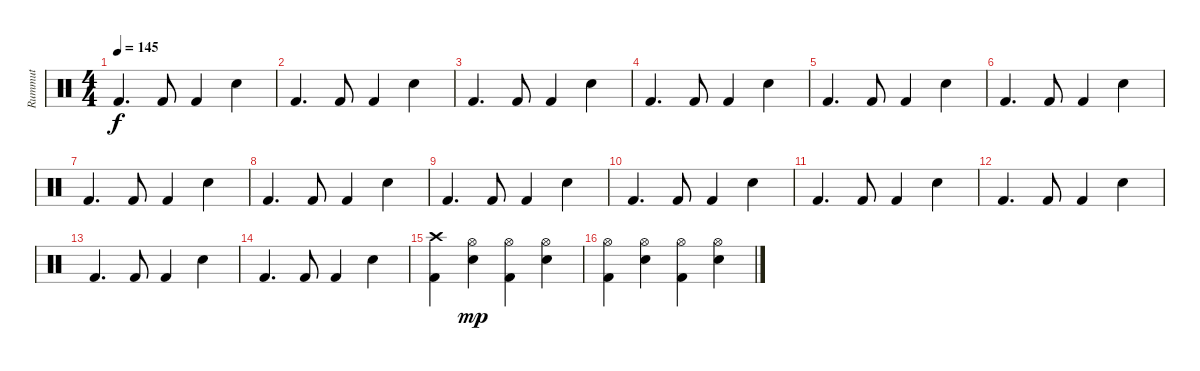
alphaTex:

\track ("Rummut" "Rummut") {instrument percussion}
\staff {score}
\articulation defaults
\ts (4 4)
\tempo 145
\clef neutral
\ks c "Kick (hit) 2".4{d dy f} "Kick (hit) 2".8 "Kick (hit) 2".4 "Snare (hit) 2".4
|
"Kick (hit) 2".4{d} "Kick (hit) 2".8 "Kick (hit) 2".4 "Snare (hit) 2".4 |
"Kick (hit) 2".4{d} "Kick (hit) 2".8 "Kick (hit) 2".4 "Snare (hit) 2".4 |
"Kick (hit) 2".4{d} "Kick (hit) 2".8 "Kick (hit) 2".4 "Snare (hit) 2".4 |
"Kick (hit) 2".4{d} "Kick (hit) 2".8 "Kick (hit) 2".4 "Snare (hit) 2".4 |
"Kick (hit) 2".4{d} "Kick (hit) 2".8 "Kick (hit) 2".4 "Snare (hit) 2".4 |
"Kick (hit) 2".4{d} "Kick (hit) 2".8 "Kick (hit) 2".4 "Snare (hit) 2".4 |
"Kick (hit) 2".4{d} "Kick (hit) 2".8 "Kick (hit) 2".4 "Snare (hit) 2".4 |
"Kick (hit) 2".4{d} "Kick (hit) 2".8 "Kick (hit) 2".4 "Snare (hit) 2".4 |
"Kick (hit) 2".4{d} "Kick (hit) 2".8 "Kick (hit) 2".4 "Snare (hit) 2".4 |
"Kick (hit) 2".4{d} "Kick (hit) 2".8 "Kick (hit) 2".4 "Snare (hit) 2".4 |
"Kick (hit) 2".4{d} "Kick (hit) 2".8 "Kick (hit) 2".4 "Snare (hit) 2".4 |
"Kick (hit) 2".4{d} "Kick (hit) 2".8 "Kick (hit) 2".4 "Snare (hit) 2".4 |
"Kick (hit) 2".4{d} "Kick (hit) 2".8 "Kick (hit) 2".4 "Snare (hit) 2".4 |
("Crash high (hit)" "Kick (hit) 2").4 ("Hi-Hat (open)" "Snare (hit) 2").4{dy mp} ("Hi-Hat (open)" "Kick (hit) 2").4 ("Hi-Hat (open)" "Snare (hit) 2").4 |
("Hi-Hat (open)" "Kick (hit) 2").4 ("Hi-Hat (open)" "Snare (hit) 2").4 ("Hi-Hat (open)" "Kick (hit) 2").4 ("Hi-Hat (open)" "Snare (hit) 2").4
